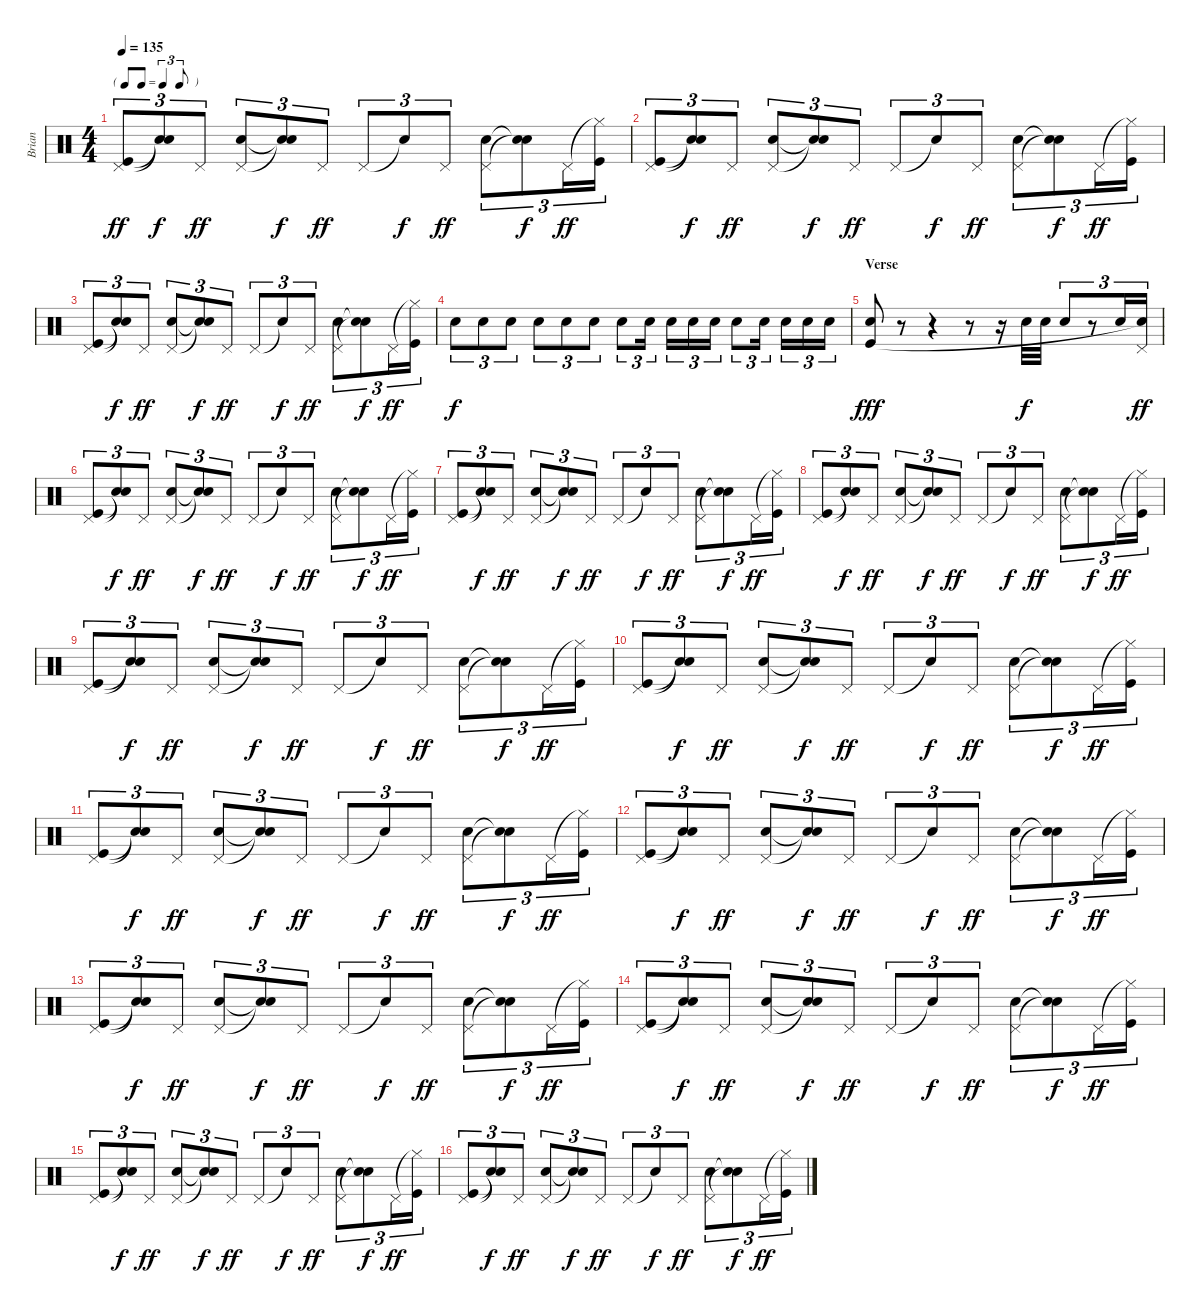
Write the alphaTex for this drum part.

\track ("Brian" "Brian") {instrument percussion}
\staff {score}
\articulation defaults
\ts (4 4)
\tf triplet8th
\tempo 135
\clef neutral
\ks c
("Pedal Hi-Hat (hit)" "Kick (hit)").8{tu (3 2) dy ff} ("Snare (hit)"{t} "Snare (hit)"{t}).8{tu (3 2) dy f} "Pedal Hi-Hat (hit)".8{tu (3 2) dy ff} ("Pedal Hi-Hat (hit)" "Snare (hit) 2").8{tu (3 2)} ("Snare (hit)"{t} "Snare (hit)"{t}).8{tu (3 2) dy f} "Pedal Hi-Hat (hit)".8{tu (3 2) dy ff} "Pedal Hi-Hat (hit)".8{tu (3 2)} "Snare (hit)"{t}.8{tu (3 2) dy f} "Pedal Hi-Hat (hit)".8{tu (3 2) dy ff} ("Pedal Hi-Hat (hit)" "Snare (hit) 2").8{tu (3 2)} ("Snare (hit)"{t} "Snare (hit)"{t}).8{tu (3 2) dy f} "Pedal Hi-Hat (hit)".16{tu (3 2) dy ff} ("Hi-Hat (closed)"{t} "Kick (hit)").16{tu (3 2)} |
("Pedal Hi-Hat (hit)" "Kick (hit)").8{tu (3 2)} ("Snare (hit)"{t} "Snare (hit)"{t}).8{tu (3 2) dy f} "Pedal Hi-Hat (hit)".8{tu (3 2) dy ff} ("Pedal Hi-Hat (hit)" "Snare (hit) 2").8{tu (3 2)} ("Snare (hit)"{t} "Snare (hit)"{t}).8{tu (3 2) dy f} "Pedal Hi-Hat (hit)".8{tu (3 2) dy ff} "Pedal Hi-Hat (hit)".8{tu (3 2)} "Snare (hit)"{t}.8{tu (3 2) dy f} "Pedal Hi-Hat (hit)".8{tu (3 2) dy ff} ("Pedal Hi-Hat (hit)" "Snare (hit) 2").8{tu (3 2)} ("Snare (hit)"{t} "Snare (hit)"{t}).8{tu (3 2) dy f} "Pedal Hi-Hat (hit)".16{tu (3 2) dy ff} ("Hi-Hat (closed)"{t} "Kick (hit)").16{tu (3 2)} |
("Pedal Hi-Hat (hit)" "Kick (hit)").8{tu (3 2)} ("Snare (hit)"{t} "Snare (hit)"{t}).8{tu (3 2) dy f} "Pedal Hi-Hat (hit)".8{tu (3 2) dy ff} ("Pedal Hi-Hat (hit)" "Snare (hit) 2").8{tu (3 2)} ("Snare (hit)"{t} "Snare (hit)"{t}).8{tu (3 2) dy f} "Pedal Hi-Hat (hit)".8{tu (3 2) dy ff} "Pedal Hi-Hat (hit)".8{tu (3 2)} "Snare (hit)"{t}.8{tu (3 2) dy f} "Pedal Hi-Hat (hit)".8{tu (3 2) dy ff} ("Pedal Hi-Hat (hit)" "Snare (hit) 2").8{tu (3 2)} ("Snare (hit)"{t} "Snare (hit)"{t}).8{tu (3 2) dy f} "Pedal Hi-Hat (hit)".16{tu (3 2) dy ff} ("Hi-Hat (closed)"{t} "Kick (hit)").16{tu (3 2)} |
"Snare (hit) 2".8{tu (3 2) dy f} "Snare (hit) 2".8{tu (3 2)} "Snare (hit) 2".8{tu (3 2)} "Snare (hit) 2".8{tu (3 2)} "Snare (hit) 2".8{tu (3 2)} "Snare (hit) 2".8{tu (3 2)} "Snare (hit) 2".8{tu (3 2)} "Snare (hit) 2".16{tu (3 2)} "Snare (hit) 2".16{tu (3 2)} "Snare (hit) 2".16{tu (3 2)} "Snare (hit) 2".16{tu (3 2)} "Snare (hit) 2".8{tu (3 2)} "Snare (hit) 2".16{tu (3 2)} "Snare (hit) 2".16{tu (3 2)} "Snare (hit) 2".16{tu (3 2)} "Snare (hit) 2".16{tu (3 2)} |
\section ("" "Verse")
("Snare (hit) 2" "Kick (hit)").8{dy fff} r.8 r.4 r.8 r.16 "Snare (hit) 2".32{dy f} "Snare (hit) 2".32 "Snare (hit) 2".8{tu (3 2)} r.8{tu (3 2)} "Snare (hit) 2".16{tu (3 2)} ("Pedal Hi-Hat (hit)" "Snare (hit)"{t}).16{tu (3 2) dy ff} |
("Pedal Hi-Hat (hit)" "Kick (hit)").8{tu (3 2)} ("Snare (hit)"{t} "Snare (hit)"{t}).8{tu (3 2) dy f} "Pedal Hi-Hat (hit)".8{tu (3 2) dy ff} ("Pedal Hi-Hat (hit)" "Snare (hit) 2").8{tu (3 2)} ("Snare (hit)"{t} "Snare (hit)"{t}).8{tu (3 2) dy f} "Pedal Hi-Hat (hit)".8{tu (3 2) dy ff} "Pedal Hi-Hat (hit)".8{tu (3 2)} "Snare (hit)"{t}.8{tu (3 2) dy f} "Pedal Hi-Hat (hit)".8{tu (3 2) dy ff} ("Pedal Hi-Hat (hit)" "Snare (hit) 2").8{tu (3 2)} ("Snare (hit)"{t} "Snare (hit)"{t}).8{tu (3 2) dy f} "Pedal Hi-Hat (hit)".16{tu (3 2) dy ff} ("Hi-Hat (closed)"{t} "Kick (hit)").16{tu (3 2)} |
("Pedal Hi-Hat (hit)" "Kick (hit)").8{tu (3 2)} ("Snare (hit)"{t} "Snare (hit)"{t}).8{tu (3 2) dy f} "Pedal Hi-Hat (hit)".8{tu (3 2) dy ff} ("Pedal Hi-Hat (hit)" "Snare (hit) 2").8{tu (3 2)} ("Snare (hit)"{t} "Snare (hit)"{t}).8{tu (3 2) dy f} "Pedal Hi-Hat (hit)".8{tu (3 2) dy ff} "Pedal Hi-Hat (hit)".8{tu (3 2)} "Snare (hit)"{t}.8{tu (3 2) dy f} "Pedal Hi-Hat (hit)".8{tu (3 2) dy ff} ("Pedal Hi-Hat (hit)" "Snare (hit) 2").8{tu (3 2)} ("Snare (hit)"{t} "Snare (hit)"{t}).8{tu (3 2) dy f} "Pedal Hi-Hat (hit)".16{tu (3 2) dy ff} ("Hi-Hat (closed)"{t} "Kick (hit)").16{tu (3 2)} |
("Pedal Hi-Hat (hit)" "Kick (hit)").8{tu (3 2)} ("Snare (hit)"{t} "Snare (hit)"{t}).8{tu (3 2) dy f} "Pedal Hi-Hat (hit)".8{tu (3 2) dy ff} ("Pedal Hi-Hat (hit)" "Snare (hit) 2").8{tu (3 2)} ("Snare (hit)"{t} "Snare (hit)"{t}).8{tu (3 2) dy f} "Pedal Hi-Hat (hit)".8{tu (3 2) dy ff} "Pedal Hi-Hat (hit)".8{tu (3 2)} "Snare (hit)"{t}.8{tu (3 2) dy f} "Pedal Hi-Hat (hit)".8{tu (3 2) dy ff} ("Pedal Hi-Hat (hit)" "Snare (hit) 2").8{tu (3 2)} ("Snare (hit)"{t} "Snare (hit)"{t}).8{tu (3 2) dy f} "Pedal Hi-Hat (hit)".16{tu (3 2) dy ff} ("Hi-Hat (closed)"{t} "Kick (hit)").16{tu (3 2)} |
("Pedal Hi-Hat (hit)" "Kick (hit)").8{tu (3 2)} ("Snare (hit)"{t} "Snare (hit)"{t}).8{tu (3 2) dy f} "Pedal Hi-Hat (hit)".8{tu (3 2) dy ff} ("Pedal Hi-Hat (hit)" "Snare (hit) 2").8{tu (3 2)} ("Snare (hit)"{t} "Snare (hit)"{t}).8{tu (3 2) dy f} "Pedal Hi-Hat (hit)".8{tu (3 2) dy ff} "Pedal Hi-Hat (hit)".8{tu (3 2)} "Snare (hit)"{t}.8{tu (3 2) dy f} "Pedal Hi-Hat (hit)".8{tu (3 2) dy ff} ("Pedal Hi-Hat (hit)" "Snare (hit) 2").8{tu (3 2)} ("Snare (hit)"{t} "Snare (hit)"{t}).8{tu (3 2) dy f} "Pedal Hi-Hat (hit)".16{tu (3 2) dy ff} ("Hi-Hat (closed)"{t} "Kick (hit)").16{tu (3 2)} |
("Pedal Hi-Hat (hit)" "Kick (hit)").8{tu (3 2)} ("Snare (hit)"{t} "Snare (hit)"{t}).8{tu (3 2) dy f} "Pedal Hi-Hat (hit)".8{tu (3 2) dy ff} ("Pedal Hi-Hat (hit)" "Snare (hit) 2").8{tu (3 2)} ("Snare (hit)"{t} "Snare (hit)"{t}).8{tu (3 2) dy f} "Pedal Hi-Hat (hit)".8{tu (3 2) dy ff} "Pedal Hi-Hat (hit)".8{tu (3 2)} "Snare (hit)"{t}.8{tu (3 2) dy f} "Pedal Hi-Hat (hit)".8{tu (3 2) dy ff} ("Pedal Hi-Hat (hit)" "Snare (hit) 2").8{tu (3 2)} ("Snare (hit)"{t} "Snare (hit)"{t}).8{tu (3 2) dy f} "Pedal Hi-Hat (hit)".16{tu (3 2) dy ff} ("Hi-Hat (closed)"{t} "Kick (hit)").16{tu (3 2)} |
("Pedal Hi-Hat (hit)" "Kick (hit)").8{tu (3 2)} ("Snare (hit)"{t} "Snare (hit)"{t}).8{tu (3 2) dy f} "Pedal Hi-Hat (hit)".8{tu (3 2) dy ff} ("Pedal Hi-Hat (hit)" "Snare (hit) 2").8{tu (3 2)} ("Snare (hit)"{t} "Snare (hit)"{t}).8{tu (3 2) dy f} "Pedal Hi-Hat (hit)".8{tu (3 2) dy ff} "Pedal Hi-Hat (hit)".8{tu (3 2)} "Snare (hit)"{t}.8{tu (3 2) dy f} "Pedal Hi-Hat (hit)".8{tu (3 2) dy ff} ("Pedal Hi-Hat (hit)" "Snare (hit) 2").8{tu (3 2)} ("Snare (hit)"{t} "Snare (hit)"{t}).8{tu (3 2) dy f} "Pedal Hi-Hat (hit)".16{tu (3 2) dy ff} ("Hi-Hat (closed)"{t} "Kick (hit)").16{tu (3 2)} |
("Pedal Hi-Hat (hit)" "Kick (hit)").8{tu (3 2)} ("Snare (hit)"{t} "Snare (hit)"{t}).8{tu (3 2) dy f} "Pedal Hi-Hat (hit)".8{tu (3 2) dy ff} ("Pedal Hi-Hat (hit)" "Snare (hit) 2").8{tu (3 2)} ("Snare (hit)"{t} "Snare (hit)"{t}).8{tu (3 2) dy f} "Pedal Hi-Hat (hit)".8{tu (3 2) dy ff} "Pedal Hi-Hat (hit)".8{tu (3 2)} "Snare (hit)"{t}.8{tu (3 2) dy f} "Pedal Hi-Hat (hit)".8{tu (3 2) dy ff} ("Pedal Hi-Hat (hit)" "Snare (hit) 2").8{tu (3 2)} ("Snare (hit)"{t} "Snare (hit)"{t}).8{tu (3 2) dy f} "Pedal Hi-Hat (hit)".16{tu (3 2) dy ff} ("Hi-Hat (closed)"{t} "Kick (hit)").16{tu (3 2)} |
("Pedal Hi-Hat (hit)" "Kick (hit)").8{tu (3 2)} ("Snare (hit)"{t} "Snare (hit)"{t}).8{tu (3 2) dy f} "Pedal Hi-Hat (hit)".8{tu (3 2) dy ff} ("Pedal Hi-Hat (hit)" "Snare (hit) 2").8{tu (3 2)} ("Snare (hit)"{t} "Snare (hit)"{t}).8{tu (3 2) dy f} "Pedal Hi-Hat (hit)".8{tu (3 2) dy ff} "Pedal Hi-Hat (hit)".8{tu (3 2)} "Snare (hit)"{t}.8{tu (3 2) dy f} "Pedal Hi-Hat (hit)".8{tu (3 2) dy ff} ("Pedal Hi-Hat (hit)" "Snare (hit) 2").8{tu (3 2)} ("Snare (hit)"{t} "Snare (hit)"{t}).8{tu (3 2) dy f} "Pedal Hi-Hat (hit)".16{tu (3 2) dy ff} ("Hi-Hat (closed)"{t} "Kick (hit)").16{tu (3 2)} |
("Pedal Hi-Hat (hit)" "Kick (hit)").8{tu (3 2)} ("Snare (hit)"{t} "Snare (hit)"{t}).8{tu (3 2) dy f} "Pedal Hi-Hat (hit)".8{tu (3 2) dy ff} ("Pedal Hi-Hat (hit)" "Snare (hit) 2").8{tu (3 2)} ("Snare (hit)"{t} "Snare (hit)"{t}).8{tu (3 2) dy f} "Pedal Hi-Hat (hit)".8{tu (3 2) dy ff} "Pedal Hi-Hat (hit)".8{tu (3 2)} "Snare (hit)"{t}.8{tu (3 2) dy f} "Pedal Hi-Hat (hit)".8{tu (3 2) dy ff} ("Pedal Hi-Hat (hit)" "Snare (hit) 2").8{tu (3 2)} ("Snare (hit)"{t} "Snare (hit)"{t}).8{tu (3 2) dy f} "Pedal Hi-Hat (hit)".16{tu (3 2) dy ff} ("Hi-Hat (closed)"{t} "Kick (hit)").16{tu (3 2)} |
("Pedal Hi-Hat (hit)" "Kick (hit)").8{tu (3 2)} ("Snare (hit)"{t} "Snare (hit)"{t}).8{tu (3 2) dy f} "Pedal Hi-Hat (hit)".8{tu (3 2) dy ff} ("Pedal Hi-Hat (hit)" "Snare (hit) 2").8{tu (3 2)} ("Snare (hit)"{t} "Snare (hit)"{t}).8{tu (3 2) dy f} "Pedal Hi-Hat (hit)".8{tu (3 2) dy ff} "Pedal Hi-Hat (hit)".8{tu (3 2)} "Snare (hit)"{t}.8{tu (3 2) dy f} "Pedal Hi-Hat (hit)".8{tu (3 2) dy ff} ("Pedal Hi-Hat (hit)" "Snare (hit) 2").8{tu (3 2)} ("Snare (hit)"{t} "Snare (hit)"{t}).8{tu (3 2) dy f} "Pedal Hi-Hat (hit)".16{tu (3 2) dy ff} ("Hi-Hat (closed)"{t} "Kick (hit)").16{tu (3 2)} |
("Pedal Hi-Hat (hit)" "Kick (hit)").8{tu (3 2)} ("Snare (hit)"{t} "Snare (hit)"{t}).8{tu (3 2) dy f} "Pedal Hi-Hat (hit)".8{tu (3 2) dy ff} ("Pedal Hi-Hat (hit)" "Snare (hit) 2").8{tu (3 2)} ("Snare (hit)"{t} "Snare (hit)"{t}).8{tu (3 2) dy f} "Pedal Hi-Hat (hit)".8{tu (3 2) dy ff} "Pedal Hi-Hat (hit)".8{tu (3 2)} "Snare (hit)"{t}.8{tu (3 2) dy f} "Pedal Hi-Hat (hit)".8{tu (3 2) dy ff} ("Pedal Hi-Hat (hit)" "Snare (hit) 2").8{tu (3 2)} ("Snare (hit)"{t} "Snare (hit)"{t}).8{tu (3 2) dy f} "Pedal Hi-Hat (hit)".16{tu (3 2) dy ff} ("Hi-Hat (closed)"{t} "Kick (hit)").16{tu (3 2)}
